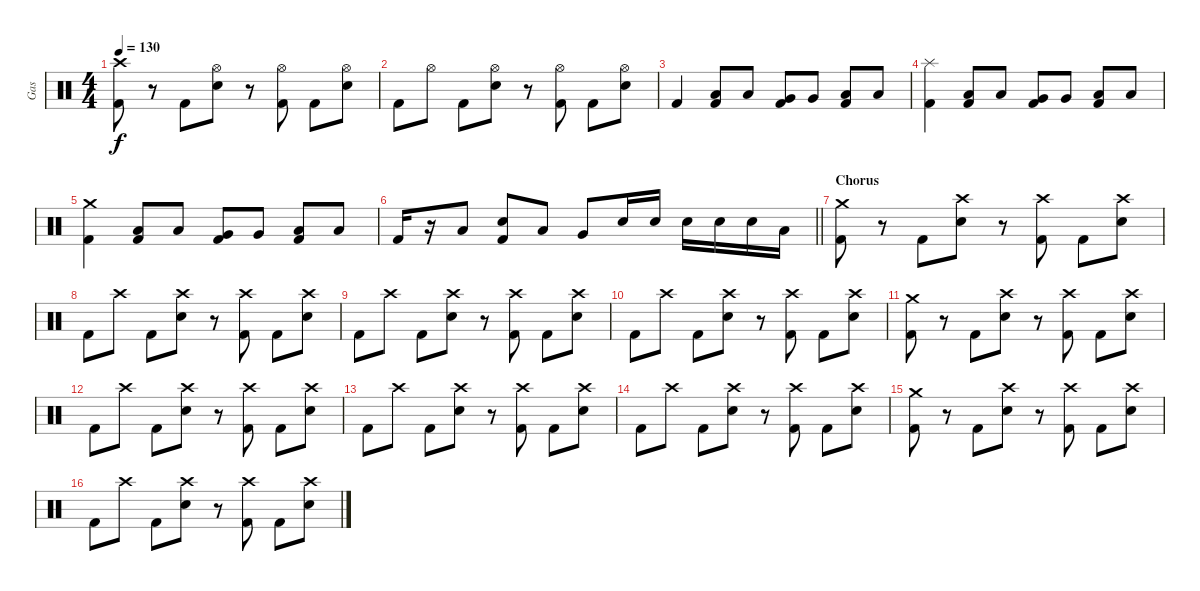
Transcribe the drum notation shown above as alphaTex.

\track ("Gas" "Gas") {instrument percussion}
\staff {score}
\articulation defaults
\ts (4 4)
\tempo 130
\clef neutral
\ks c
("Crash high (hit)" "Kick (hit) 2").8{dy f} r.8 "Kick (hit) 2".8 ("Hi-Hat (open)" "Electric Snare (hit)").8 r.8 ("Hi-Hat (open)" "Kick (hit) 2").8 "Kick (hit) 2".8 ("Hi-Hat (open)" "Electric Snare (hit)").8 |
"Kick (hit) 2".8 "Hi-Hat (open)".8 "Kick (hit) 2".8 ("Electric Snare (hit)" "Hi-Hat (open)").8 r.8 ("Kick (hit) 2" "Hi-Hat (open)").8 "Kick (hit) 2".8 ("Electric Snare (hit)" "Hi-Hat (open)").8 |
"Kick (hit) 2".4 ("Low Tom (hit)" "Kick (hit) 2").8 "Low Tom (hit)".8 ("Very Low Tom (hit)" "Kick (hit) 2").8 "Very Low Tom (hit)".8 ("Low Floor Tom (hit)" "Kick (hit) 2").8 "Low Floor Tom (hit)".8 |
("Splash (hit)" "Kick (hit) 2").4 ("Low Tom (hit)" "Kick (hit) 2").8 "Low Tom (hit)".8 ("Very Low Tom (hit)" "Kick (hit) 2").8 "Very Low Tom (hit)".8 ("Low Floor Tom (hit)" "Kick (hit) 2").8 "Low Floor Tom (hit)".8 |
("Crash medium (hit)" "Kick (hit) 2").4 ("Low Tom (hit)" "Kick (hit) 2").8 "Low Tom (hit)".8 ("Very Low Tom (hit)" "Kick (hit) 2").8 "Very Low Tom (hit)".8 ("Low Floor Tom (hit)" "Kick (hit) 2").8 "Low Floor Tom (hit)".8 |
\barLineRight lightlight "Kick (hit) 2".16
r.16 "Low Tom (hit)".8 ("Kick (hit) 2" "Electric Snare (hit)").8 "Low Tom (hit)".8 "Very Low Tom (hit)".8 "Electric Snare (hit)".16 "Electric Snare (hit)".16 "Electric Snare (hit)".16 "Electric Snare (hit)".16 "Electric Snare (hit)".16 "Low Tom (hit)".16 |
\section ("" "Chorus")
("Crash medium (hit)" "Kick (hit) 2").8 r.8 "Kick (hit) 2".8 ("Crash high (hit)" "Electric Snare (hit)").8 r.8 ("Crash high (hit)" "Kick (hit) 2").8 "Kick (hit) 2".8 ("Crash high (hit)" "Electric Snare (hit)").8 |
"Kick (hit) 2".8 "Crash high (hit)".8 "Kick (hit) 2".8 ("Electric Snare (hit)" "Crash high (hit)").8 r.8 ("Kick (hit) 2" "Crash high (hit)").8 "Kick (hit) 2".8 ("Electric Snare (hit)" "Crash high (hit)").8 |
"Kick (hit) 2".8 "Crash high (hit)".8 "Kick (hit) 2".8 ("Crash high (hit)" "Electric Snare (hit)").8 r.8 ("Crash high (hit)" "Kick (hit) 2").8 "Kick (hit) 2".8 ("Crash high (hit)" "Electric Snare (hit)").8 |
"Kick (hit) 2".8 "Crash high (hit)".8 "Kick (hit) 2".8 ("Electric Snare (hit)" "Crash high (hit)").8 r.8 ("Kick (hit) 2" "Crash high (hit)").8 "Kick (hit) 2".8 ("Electric Snare (hit)" "Crash high (hit)").8 |
("Crash medium (hit)" "Kick (hit) 2").8 r.8 "Kick (hit) 2".8 ("Crash high (hit)" "Electric Snare (hit)").8 r.8 ("Crash high (hit)" "Kick (hit) 2").8 "Kick (hit) 2".8 ("Crash high (hit)" "Electric Snare (hit)").8 |
"Kick (hit) 2".8 "Crash high (hit)".8 "Kick (hit) 2".8 ("Electric Snare (hit)" "Crash high (hit)").8 r.8 ("Kick (hit) 2" "Crash high (hit)").8 "Kick (hit) 2".8 ("Electric Snare (hit)" "Crash high (hit)").8 |
"Kick (hit) 2".8 "Crash high (hit)".8 "Kick (hit) 2".8 ("Crash high (hit)" "Electric Snare (hit)").8 r.8 ("Crash high (hit)" "Kick (hit) 2").8 "Kick (hit) 2".8 ("Crash high (hit)" "Electric Snare (hit)").8 |
"Kick (hit) 2".8 "Crash high (hit)".8 "Kick (hit) 2".8 ("Electric Snare (hit)" "Crash high (hit)").8 r.8 ("Crash high (hit)" "Kick (hit) 2").8 "Kick (hit) 2".8 ("Crash high (hit)" "Electric Snare (hit)").8 |
("Crash medium (hit)" "Kick (hit) 2").8 r.8 "Kick (hit) 2".8 ("Crash high (hit)" "Electric Snare (hit)").8 r.8 ("Crash high (hit)" "Kick (hit) 2").8 "Kick (hit) 2".8 ("Crash high (hit)" "Electric Snare (hit)").8 |
"Kick (hit) 2".8 "Crash high (hit)".8 "Kick (hit) 2".8 ("Electric Snare (hit)" "Crash high (hit)").8 r.8 ("Kick (hit) 2" "Crash high (hit)").8 "Kick (hit) 2".8 ("Electric Snare (hit)" "Crash high (hit)").8
